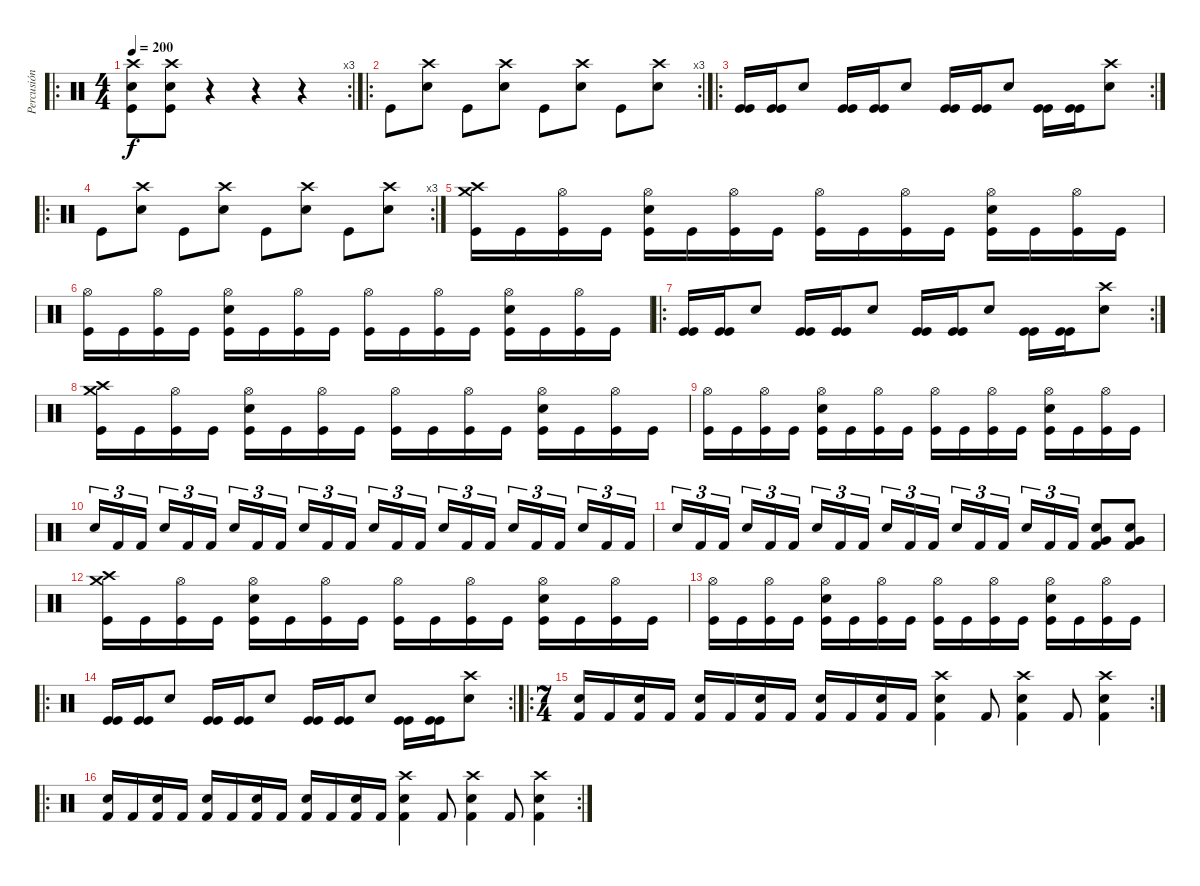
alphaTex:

\track ("Percusión" "Percusión") {instrument percussion}
\staff {score}
\articulation defaults
\ro
\rc 3
\ts (4 4)
\tempo 200
\clef neutral
\ks c
("Crash high (hit)" "Snare (hit) 2" "Kick (hit)").8{dy f} ("Crash high (hit)" "Snare (hit) 2" "Kick (hit)").8 r.4 r.4 r.4 |
\ro
\rc 3 "Kick (hit)".8
("Crash high (hit)" "Snare (hit) 2").8 "Kick (hit)".8 ("Crash high (hit)" "Snare (hit) 2").8 "Kick (hit)".8 ("Crash high (hit)" "Snare (hit) 2").8 "Kick (hit)".8 ("Crash high (hit)" "Snare (hit) 2").8 |
\ro
\rc 2
("Kick (hit)" "Kick (hit)").16 ("Kick (hit)" "Kick (hit)").16 "Snare (hit) 2".8 ("Kick (hit)" "Kick (hit)").16 ("Kick (hit)" "Kick (hit)").16 "Snare (hit) 2".8 ("Kick (hit)" "Kick (hit)").16 ("Kick (hit)" "Kick (hit)").16 "Snare (hit) 2".8 ("Kick (hit)" "Kick (hit)").16 ("Kick (hit)" "Kick (hit)").16 ("Snare (hit) 2" "Crash high (hit)").8 |
\ro
\rc 3 "Kick (hit)".8
("Crash high (hit)" "Snare (hit) 2").8 "Kick (hit)".8 ("Crash high (hit)" "Snare (hit) 2").8 "Kick (hit)".8 ("Crash high (hit)" "Snare (hit) 2").8 "Kick (hit)".8 ("Crash high (hit)" "Snare (hit) 2").8 |
("Crash high (hit)" "Crash medium (hit)" "Kick (hit)").16 "Kick (hit)".16 ("Hi-Hat (open)" "Kick (hit)").16 "Kick (hit)".16 ("Hi-Hat (open)" "Electric Snare (hit)" "Kick (hit)").16 "Kick (hit)".16 ("Hi-Hat (open)" "Kick (hit)").16 "Kick (hit)".16 ("Hi-Hat (open)" "Kick (hit)").16 "Kick (hit)".16 ("Hi-Hat (open)" "Kick (hit)").16 "Kick (hit)".16 ("Hi-Hat (open)" "Electric Snare (hit)" "Kick (hit)").16 "Kick (hit)".16 ("Hi-Hat (open)" "Kick (hit)").16 "Kick (hit)".16 |
("Hi-Hat (open)" "Kick (hit)").16 "Kick (hit)".16 ("Hi-Hat (open)" "Kick (hit)").16 "Kick (hit)".16 ("Hi-Hat (open)" "Electric Snare (hit)" "Kick (hit)").16 "Kick (hit)".16 ("Hi-Hat (open)" "Kick (hit)").16 "Kick (hit)".16 ("Hi-Hat (open)" "Kick (hit)").16 "Kick (hit)".16 ("Hi-Hat (open)" "Kick (hit)").16 "Kick (hit)".16 ("Hi-Hat (open)" "Electric Snare (hit)" "Kick (hit)").16 "Kick (hit)".16 ("Hi-Hat (open)" "Kick (hit)").16 "Kick (hit)".16 |
\ro
\rc 2
("Kick (hit)" "Kick (hit)").16 ("Kick (hit)" "Kick (hit)").16 "Snare (hit) 2".8 ("Kick (hit)" "Kick (hit)").16 ("Kick (hit)" "Kick (hit)").16 "Snare (hit) 2".8 ("Kick (hit)" "Kick (hit)").16 ("Kick (hit)" "Kick (hit)").16 "Snare (hit) 2".8 ("Kick (hit)" "Kick (hit)").16 ("Kick (hit)" "Kick (hit)").16 ("Crash high (hit)" "Snare (hit) 2").8 |
("Crash high (hit)" "Crash medium (hit)" "Kick (hit)").16 "Kick (hit)".16 ("Hi-Hat (open)" "Kick (hit)").16 "Kick (hit)".16 ("Hi-Hat (open)" "Electric Snare (hit)" "Kick (hit)").16 "Kick (hit)".16 ("Hi-Hat (open)" "Kick (hit)").16 "Kick (hit)".16 ("Hi-Hat (open)" "Kick (hit)").16 "Kick (hit)".16 ("Hi-Hat (open)" "Kick (hit)").16 "Kick (hit)".16 ("Hi-Hat (open)" "Electric Snare (hit)" "Kick (hit)").16 "Kick (hit)".16 ("Hi-Hat (open)" "Kick (hit)").16 "Kick (hit)".16 |
("Hi-Hat (open)" "Kick (hit)").16 "Kick (hit)".16 ("Hi-Hat (open)" "Kick (hit)").16 "Kick (hit)".16 ("Hi-Hat (open)" "Electric Snare (hit)" "Kick (hit)").16 "Kick (hit)".16 ("Hi-Hat (open)" "Kick (hit)").16 "Kick (hit)".16 ("Hi-Hat (open)" "Kick (hit)").16 "Kick (hit)".16 ("Hi-Hat (open)" "Kick (hit)").16 "Kick (hit)".16 ("Hi-Hat (open)" "Electric Snare (hit)" "Kick (hit)").16 "Kick (hit)".16 ("Hi-Hat (open)" "Kick (hit)").16 "Kick (hit)".16 |
"Snare (hit) 2".16{tu (3 2)} "Kick (hit) 2".16{tu (3 2)} "Kick (hit) 2".16{tu (3 2)} "Snare (hit) 2".16{tu (3 2)} "Kick (hit) 2".16{tu (3 2)} "Kick (hit) 2".16{tu (3 2)} "Snare (hit) 2".16{tu (3 2)} "Kick (hit) 2".16{tu (3 2)} "Kick (hit) 2".16{tu (3 2)} "Snare (hit) 2".16{tu (3 2)} "Kick (hit) 2".16{tu (3 2)} "Kick (hit) 2".16{tu (3 2)} "Snare (hit) 2".16{tu (3 2)} "Kick (hit) 2".16{tu (3 2)} "Kick (hit) 2".16{tu (3 2)} "Snare (hit) 2".16{tu (3 2)} "Kick (hit) 2".16{tu (3 2)} "Kick (hit) 2".16{tu (3 2)} "Snare (hit) 2".16{tu (3 2)} "Kick (hit) 2".16{tu (3 2)} "Kick (hit) 2".16{tu (3 2)} "Snare (hit) 2".16{tu (3 2)} "Kick (hit) 2".16{tu (3 2)} "Kick (hit) 2".16{tu (3 2)} |
"Snare (hit) 2".16{tu (3 2)} "Kick (hit) 2".16{tu (3 2)} "Kick (hit) 2".16{tu (3 2)} "Snare (hit) 2".16{tu (3 2)} "Kick (hit) 2".16{tu (3 2)} "Kick (hit) 2".16{tu (3 2)} "Snare (hit) 2".16{tu (3 2)} "Kick (hit) 2".16{tu (3 2)} "Kick (hit) 2".16{tu (3 2)} "Snare (hit) 2".16{tu (3 2)} "Kick (hit) 2".16{tu (3 2)} "Kick (hit) 2".16{tu (3 2)} "Snare (hit) 2".16{tu (3 2)} "Kick (hit) 2".16{tu (3 2)} "Kick (hit) 2".16{tu (3 2)} "Snare (hit) 2".16{tu (3 2)} "Kick (hit) 2".16{tu (3 2)} "Kick (hit) 2".16{tu (3 2)} ("Snare (hit) 2" "Very Low Tom (hit)" "Kick (hit) 2").8 ("Snare (hit) 2" "Very Low Tom (hit)" "Kick (hit) 2").8 |
("Crash high (hit)" "Crash medium (hit)" "Kick (hit)").16 "Kick (hit)".16 ("Hi-Hat (open)" "Kick (hit)").16 "Kick (hit)".16 ("Hi-Hat (open)" "Electric Snare (hit)" "Kick (hit)").16 "Kick (hit)".16 ("Hi-Hat (open)" "Kick (hit)").16 "Kick (hit)".16 ("Hi-Hat (open)" "Kick (hit)").16 "Kick (hit)".16 ("Hi-Hat (open)" "Kick (hit)").16 "Kick (hit)".16 ("Hi-Hat (open)" "Electric Snare (hit)" "Kick (hit)").16 "Kick (hit)".16 ("Hi-Hat (open)" "Kick (hit)").16 "Kick (hit)".16 |
("Hi-Hat (open)" "Kick (hit)").16 "Kick (hit)".16 ("Hi-Hat (open)" "Kick (hit)").16 "Kick (hit)".16 ("Hi-Hat (open)" "Electric Snare (hit)" "Kick (hit)").16 "Kick (hit)".16 ("Hi-Hat (open)" "Kick (hit)").16 "Kick (hit)".16 ("Hi-Hat (open)" "Kick (hit)").16 "Kick (hit)".16 ("Hi-Hat (open)" "Kick (hit)").16 "Kick (hit)".16 ("Hi-Hat (open)" "Electric Snare (hit)" "Kick (hit)").16 "Kick (hit)".16 ("Hi-Hat (open)" "Kick (hit)").16 "Kick (hit)".16 |
\ro
\rc 2
("Kick (hit)" "Kick (hit)").16 ("Kick (hit)" "Kick (hit)").16 "Snare (hit) 2".8 ("Kick (hit)" "Kick (hit)").16 ("Kick (hit)" "Kick (hit)").16 "Snare (hit) 2".8 ("Kick (hit)" "Kick (hit)").16 ("Kick (hit)" "Kick (hit)").16 "Snare (hit) 2".8 ("Kick (hit)" "Kick (hit)").16 ("Kick (hit)" "Kick (hit)").16 ("Crash high (hit)" "Snare (hit) 2").8 |
\ro
\rc 2
\ts (7 4)
("Electric Snare (hit)" "Kick (hit) 2").16 "Kick (hit) 2".16 ("Electric Snare (hit)" "Kick (hit) 2").16 "Kick (hit) 2".16 ("Electric Snare (hit)" "Kick (hit) 2").16 "Kick (hit) 2".16 ("Electric Snare (hit)" "Kick (hit) 2").16 "Kick (hit) 2".16 ("Electric Snare (hit)" "Kick (hit) 2").16 "Kick (hit) 2".16 ("Electric Snare (hit)" "Kick (hit) 2").16 "Kick (hit) 2".16 ("Crash high (hit)" "Snare (hit) 2" "Kick (hit) 2").4 "Kick (hit) 2".8 ("Crash high (hit)" "Snare (hit) 2" "Kick (hit) 2").4 "Kick (hit) 2".8 ("Crash high (hit)" "Snare (hit) 2" "Kick (hit) 2").4 |
\ro
\rc 2
("Electric Snare (hit)" "Kick (hit) 2").16 "Kick (hit) 2".16 ("Electric Snare (hit)" "Kick (hit) 2").16 "Kick (hit) 2".16 ("Electric Snare (hit)" "Kick (hit) 2").16 "Kick (hit) 2".16 ("Electric Snare (hit)" "Kick (hit) 2").16 "Kick (hit) 2".16 ("Electric Snare (hit)" "Kick (hit) 2").16 "Kick (hit) 2".16 ("Electric Snare (hit)" "Kick (hit) 2").16 "Kick (hit) 2".16 ("Crash high (hit)" "Snare (hit) 2" "Kick (hit) 2").4 "Kick (hit) 2".8 ("Crash high (hit)" "Snare (hit) 2" "Kick (hit) 2").4 "Kick (hit) 2".8 ("Crash high (hit)" "Snare (hit) 2" "Kick (hit) 2").4
